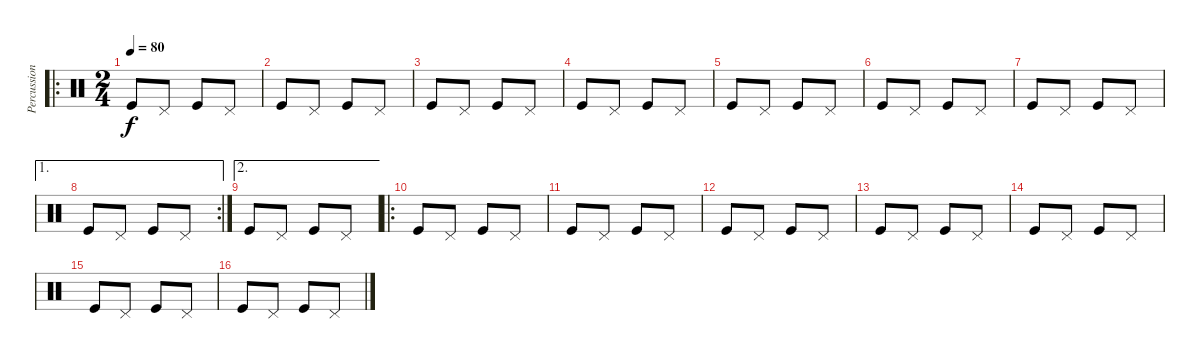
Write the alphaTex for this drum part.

\track ("Percussion" "Percussion") {instrument percussion}
\staff {score}
\articulation defaults
\ro
\ts (2 4)
\tempo 80
\clef neutral
\ks c "Kick (hit)".8{dy f} "Pedal Hi-Hat (hit)".8 "Kick (hit)".8 "Pedal Hi-Hat (hit)".8
|
"Kick (hit)".8 "Pedal Hi-Hat (hit)".8 "Kick (hit)".8 "Pedal Hi-Hat (hit)".8 |
"Kick (hit)".8 "Pedal Hi-Hat (hit)".8 "Kick (hit)".8 "Pedal Hi-Hat (hit)".8 |
"Kick (hit)".8 "Pedal Hi-Hat (hit)".8 "Kick (hit)".8 "Pedal Hi-Hat (hit)".8 |
"Kick (hit)".8 "Pedal Hi-Hat (hit)".8 "Kick (hit)".8 "Pedal Hi-Hat (hit)".8 |
"Kick (hit)".8 "Pedal Hi-Hat (hit)".8 "Kick (hit)".8 "Pedal Hi-Hat (hit)".8 |
"Kick (hit)".8 "Pedal Hi-Hat (hit)".8 "Kick (hit)".8 "Pedal Hi-Hat (hit)".8 |
\ae 1
\rc 2 "Kick (hit)".8 "Pedal Hi-Hat (hit)".8 "Kick (hit)".8 "Pedal Hi-Hat (hit)".8
|
\ae 2 "Kick (hit)".8 "Pedal Hi-Hat (hit)".8 "Kick (hit)".8 "Pedal Hi-Hat (hit)".8
|
\ro "Kick (hit)".8 "Pedal Hi-Hat (hit)".8 "Kick (hit)".8 "Pedal Hi-Hat (hit)".8
|
"Kick (hit)".8 "Pedal Hi-Hat (hit)".8 "Kick (hit)".8 "Pedal Hi-Hat (hit)".8 |
"Kick (hit)".8 "Pedal Hi-Hat (hit)".8 "Kick (hit)".8 "Pedal Hi-Hat (hit)".8 |
"Kick (hit)".8 "Pedal Hi-Hat (hit)".8 "Kick (hit)".8 "Pedal Hi-Hat (hit)".8 |
"Kick (hit)".8 "Pedal Hi-Hat (hit)".8 "Kick (hit)".8 "Pedal Hi-Hat (hit)".8 |
"Kick (hit)".8 "Pedal Hi-Hat (hit)".8 "Kick (hit)".8 "Pedal Hi-Hat (hit)".8 |
"Kick (hit)".8 "Pedal Hi-Hat (hit)".8 "Kick (hit)".8 "Pedal Hi-Hat (hit)".8
